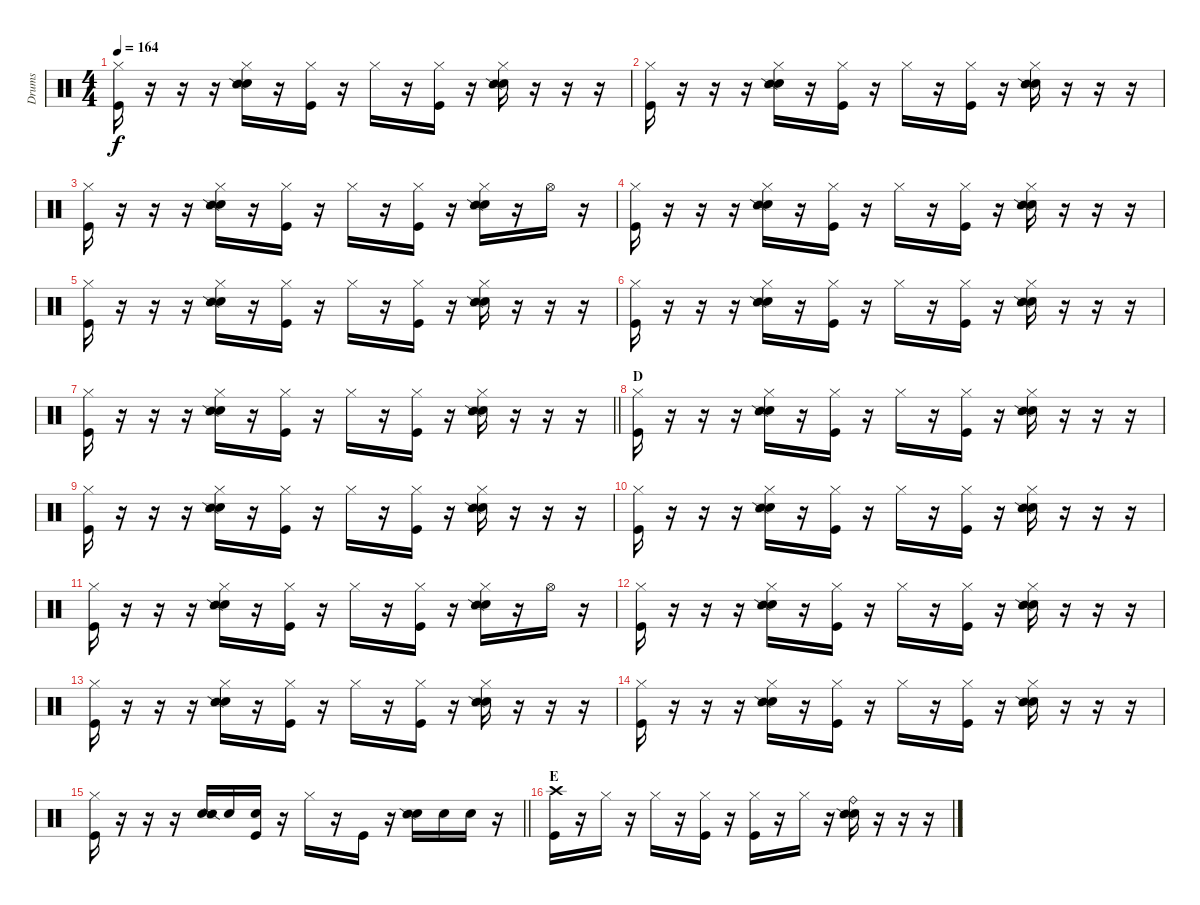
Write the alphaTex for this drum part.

\track ("Drums" "Drums") {instrument percussion}
\staff {score}
\articulation defaults
\ts (4 4)
\tempo 164
\clef neutral
\ks c
("Hi-Hat (closed)" "Kick (hit)").16{dy f} r.16 r.16 r.16 ("Hi-Hat (closed)" "Electric Snare (hit)" "Snare (side stick) 2").16 r.16 ("Hi-Hat (closed)" "Kick (hit)").16 r.16 "Hi-Hat (closed)".16 r.16 ("Hi-Hat (closed)" "Kick (hit)").16 r.16 ("Hi-Hat (closed)" "Electric Snare (hit)" "Snare (side stick) 2").16 r.16 r.16 r.16 |
("Hi-Hat (closed)" "Kick (hit)").16 r.16 r.16 r.16 ("Hi-Hat (closed)" "Electric Snare (hit)" "Snare (side stick) 2").16 r.16 ("Hi-Hat (closed)" "Kick (hit)").16 r.16 "Hi-Hat (closed)".16 r.16 ("Hi-Hat (closed)" "Kick (hit)").16 r.16 ("Hi-Hat (closed)" "Electric Snare (hit)" "Snare (side stick) 2").16 r.16 r.16 r.16 |
("Hi-Hat (closed)" "Kick (hit)").16 r.16 r.16 r.16 ("Hi-Hat (closed)" "Electric Snare (hit)" "Snare (side stick) 2").16 r.16 ("Hi-Hat (closed)" "Kick (hit)").16 r.16 "Hi-Hat (closed)".16 r.16 ("Hi-Hat (closed)" "Kick (hit)").16 r.16 ("Hi-Hat (closed)" "Electric Snare (hit)" "Snare (side stick) 2").16 r.16 "Hi-Hat (open)".16 r.16 |
("Hi-Hat (closed)" "Kick (hit)").16 r.16 r.16 r.16 ("Hi-Hat (closed)" "Electric Snare (hit)" "Snare (side stick) 2").16 r.16 ("Hi-Hat (closed)" "Kick (hit)").16 r.16 "Hi-Hat (closed)".16 r.16 ("Hi-Hat (closed)" "Kick (hit)").16 r.16 ("Hi-Hat (closed)" "Electric Snare (hit)" "Snare (side stick) 2").16 r.16 r.16 r.16 |
("Hi-Hat (closed)" "Kick (hit)").16 r.16 r.16 r.16 ("Hi-Hat (closed)" "Electric Snare (hit)" "Snare (side stick) 2").16 r.16 ("Hi-Hat (closed)" "Kick (hit)").16 r.16 "Hi-Hat (closed)".16 r.16 ("Hi-Hat (closed)" "Kick (hit)").16 r.16 ("Hi-Hat (closed)" "Electric Snare (hit)" "Snare (side stick) 2").16 r.16 r.16 r.16 |
("Hi-Hat (closed)" "Kick (hit)").16 r.16 r.16 r.16 ("Hi-Hat (closed)" "Electric Snare (hit)" "Snare (side stick) 2").16 r.16 ("Hi-Hat (closed)" "Kick (hit)").16 r.16 "Hi-Hat (closed)".16 r.16 ("Hi-Hat (closed)" "Kick (hit)").16 r.16 ("Hi-Hat (closed)" "Electric Snare (hit)" "Snare (side stick) 2").16 r.16 r.16 r.16 |
\barLineRight lightlight
("Hi-Hat (closed)" "Kick (hit)").16 r.16 r.16 r.16 ("Hi-Hat (closed)" "Electric Snare (hit)" "Snare (side stick) 2").16 r.16 ("Hi-Hat (closed)" "Kick (hit)").16 r.16 "Hi-Hat (closed)".16 r.16 ("Hi-Hat (closed)" "Kick (hit)").16 r.16 ("Hi-Hat (closed)" "Electric Snare (hit)" "Snare (side stick) 2").16 r.16 r.16 r.16 |
\section ("" "D")
("Hi-Hat (closed)" "Kick (hit)").16 r.16 r.16 r.16 ("Hi-Hat (closed)" "Electric Snare (hit)" "Snare (side stick) 2").16 r.16 ("Hi-Hat (closed)" "Kick (hit)").16 r.16 "Hi-Hat (closed)".16 r.16 ("Hi-Hat (closed)" "Kick (hit)").16 r.16 ("Hi-Hat (closed)" "Electric Snare (hit)" "Snare (side stick) 2").16 r.16 r.16 r.16 |
("Hi-Hat (closed)" "Kick (hit)").16 r.16 r.16 r.16 ("Hi-Hat (closed)" "Electric Snare (hit)" "Snare (side stick) 2").16 r.16 ("Hi-Hat (closed)" "Kick (hit)").16 r.16 "Hi-Hat (closed)".16 r.16 ("Hi-Hat (closed)" "Kick (hit)").16 r.16 ("Hi-Hat (closed)" "Electric Snare (hit)" "Snare (side stick) 2").16 r.16 r.16 r.16 |
("Hi-Hat (closed)" "Kick (hit)").16 r.16 r.16 r.16 ("Hi-Hat (closed)" "Electric Snare (hit)" "Snare (side stick) 2").16 r.16 ("Hi-Hat (closed)" "Kick (hit)").16 r.16 "Hi-Hat (closed)".16 r.16 ("Hi-Hat (closed)" "Kick (hit)").16 r.16 ("Hi-Hat (closed)" "Electric Snare (hit)" "Snare (side stick) 2").16 r.16 r.16 r.16 |
("Hi-Hat (closed)" "Kick (hit)").16 r.16 r.16 r.16 ("Hi-Hat (closed)" "Electric Snare (hit)" "Snare (side stick) 2").16 r.16 ("Hi-Hat (closed)" "Kick (hit)").16 r.16 "Hi-Hat (closed)".16 r.16 ("Hi-Hat (closed)" "Kick (hit)").16 r.16 ("Hi-Hat (closed)" "Electric Snare (hit)" "Snare (side stick) 2").16 r.16 "Hi-Hat (open)".16 r.16 |
("Hi-Hat (closed)" "Kick (hit)").16 r.16 r.16 r.16 ("Hi-Hat (closed)" "Electric Snare (hit)" "Snare (side stick) 2").16 r.16 ("Hi-Hat (closed)" "Kick (hit)").16 r.16 "Hi-Hat (closed)".16 r.16 ("Hi-Hat (closed)" "Kick (hit)").16 r.16 ("Hi-Hat (closed)" "Electric Snare (hit)" "Snare (side stick) 2").16 r.16 r.16 r.16 |
("Hi-Hat (closed)" "Kick (hit)").16 r.16 r.16 r.16 ("Hi-Hat (closed)" "Electric Snare (hit)" "Snare (side stick) 2").16 r.16 ("Hi-Hat (closed)" "Kick (hit)").16 r.16 "Hi-Hat (closed)".16 r.16 ("Hi-Hat (closed)" "Kick (hit)").16 r.16 ("Hi-Hat (closed)" "Electric Snare (hit)" "Snare (side stick) 2").16 r.16 r.16 r.16 |
("Hi-Hat (closed)" "Kick (hit)").16 r.16 r.16 r.16 ("Hi-Hat (closed)" "Electric Snare (hit)" "Snare (side stick) 2").16 r.16 ("Hi-Hat (closed)" "Kick (hit)").16 r.16 "Hi-Hat (closed)".16 r.16 ("Hi-Hat (closed)" "Kick (hit)").16 r.16 ("Hi-Hat (closed)" "Electric Snare (hit)" "Snare (side stick) 2").16 r.16 r.16 r.16 |
\barLineRight lightlight
("Hi-Hat (closed)" "Kick (hit)").16 r.16 r.16 r.16 ("Electric Snare (hit)" "Snare (side stick) 2").16 "Electric Snare (hit)".16 ("Electric Snare (hit)" "Kick (hit)").16 r.16 "Hi-Hat (closed)".16 r.16 "Kick (hit)".16 r.16 ("Electric Snare (hit)" "Snare (side stick) 2").16 "Electric Snare (hit)".16 "Electric Snare (hit)".16 r.16 |
\section ("" "E")
("Crash high (hit)" "Kick (hit)").16 r.16 "Hi-Hat (closed)".16 r.16 "Hi-Hat (closed)".16 r.16 ("Hi-Hat (closed)" "Kick (hit)").16 r.16 ("Hi-Hat (closed)" "Kick (hit)").16 r.16 "Hi-Hat (closed)".16 r.16 ("Ride (bell)" "Electric Snare (hit)" "Snare (side stick) 2").16 r.16 r.16 r.16
